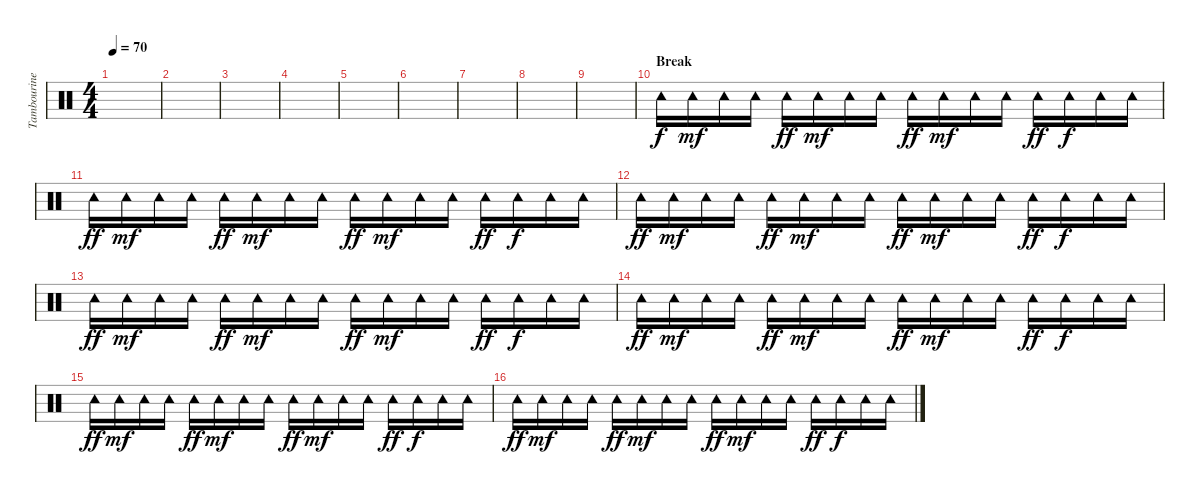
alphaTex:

\track ("Tambourine" "Tambourine") {instrument percussion}
\staff {score}
\articulation defaults
\ts (4 4)
\tempo 70
\clef neutral
\ks c
|
|
|
|
|
|
|
|
|
\section ("" "Break")
"Tambourine (hit)".16 "Tambourine (hit)".16{dy mf} "Tambourine (hit)".16 "Tambourine (hit)".16 "Tambourine (hit)".16{dy ff} "Tambourine (hit)".16{dy mf} "Tambourine (hit)".16 "Tambourine (hit)".16 "Tambourine (hit)".16{dy ff} "Tambourine (hit)".16{dy mf} "Tambourine (hit)".16 "Tambourine (hit)".16 "Tambourine (hit)".16{dy ff} "Tambourine (hit)".16{dy f} "Tambourine (hit)".16 "Tambourine (hit)".16 |
"Tambourine (hit)".16{dy ff} "Tambourine (hit)".16{dy mf} "Tambourine (hit)".16 "Tambourine (hit)".16 "Tambourine (hit)".16{dy ff} "Tambourine (hit)".16{dy mf} "Tambourine (hit)".16 "Tambourine (hit)".16 "Tambourine (hit)".16{dy ff} "Tambourine (hit)".16{dy mf} "Tambourine (hit)".16 "Tambourine (hit)".16 "Tambourine (hit)".16{dy ff} "Tambourine (hit)".16{dy f} "Tambourine (hit)".16 "Tambourine (hit)".16 |
"Tambourine (hit)".16{dy ff} "Tambourine (hit)".16{dy mf} "Tambourine (hit)".16 "Tambourine (hit)".16 "Tambourine (hit)".16{dy ff} "Tambourine (hit)".16{dy mf} "Tambourine (hit)".16 "Tambourine (hit)".16 "Tambourine (hit)".16{dy ff} "Tambourine (hit)".16{dy mf} "Tambourine (hit)".16 "Tambourine (hit)".16 "Tambourine (hit)".16{dy ff} "Tambourine (hit)".16{dy f} "Tambourine (hit)".16 "Tambourine (hit)".16 |
"Tambourine (hit)".16{dy ff} "Tambourine (hit)".16{dy mf} "Tambourine (hit)".16 "Tambourine (hit)".16 "Tambourine (hit)".16{dy ff} "Tambourine (hit)".16{dy mf} "Tambourine (hit)".16 "Tambourine (hit)".16 "Tambourine (hit)".16{dy ff} "Tambourine (hit)".16{dy mf} "Tambourine (hit)".16 "Tambourine (hit)".16 "Tambourine (hit)".16{dy ff} "Tambourine (hit)".16{dy f} "Tambourine (hit)".16 "Tambourine (hit)".16 |
"Tambourine (hit)".16{dy ff} "Tambourine (hit)".16{dy mf} "Tambourine (hit)".16 "Tambourine (hit)".16 "Tambourine (hit)".16{dy ff} "Tambourine (hit)".16{dy mf} "Tambourine (hit)".16 "Tambourine (hit)".16 "Tambourine (hit)".16{dy ff} "Tambourine (hit)".16{dy mf} "Tambourine (hit)".16 "Tambourine (hit)".16 "Tambourine (hit)".16{dy ff} "Tambourine (hit)".16{dy f} "Tambourine (hit)".16 "Tambourine (hit)".16 |
"Tambourine (hit)".16{dy ff} "Tambourine (hit)".16{dy mf} "Tambourine (hit)".16 "Tambourine (hit)".16 "Tambourine (hit)".16{dy ff} "Tambourine (hit)".16{dy mf} "Tambourine (hit)".16 "Tambourine (hit)".16 "Tambourine (hit)".16{dy ff} "Tambourine (hit)".16{dy mf} "Tambourine (hit)".16 "Tambourine (hit)".16 "Tambourine (hit)".16{dy ff} "Tambourine (hit)".16{dy f} "Tambourine (hit)".16 "Tambourine (hit)".16 |
"Tambourine (hit)".16{dy ff} "Tambourine (hit)".16{dy mf} "Tambourine (hit)".16 "Tambourine (hit)".16 "Tambourine (hit)".16{dy ff} "Tambourine (hit)".16{dy mf} "Tambourine (hit)".16 "Tambourine (hit)".16 "Tambourine (hit)".16{dy ff} "Tambourine (hit)".16{dy mf} "Tambourine (hit)".16 "Tambourine (hit)".16 "Tambourine (hit)".16{dy ff} "Tambourine (hit)".16{dy f} "Tambourine (hit)".16 "Tambourine (hit)".16
